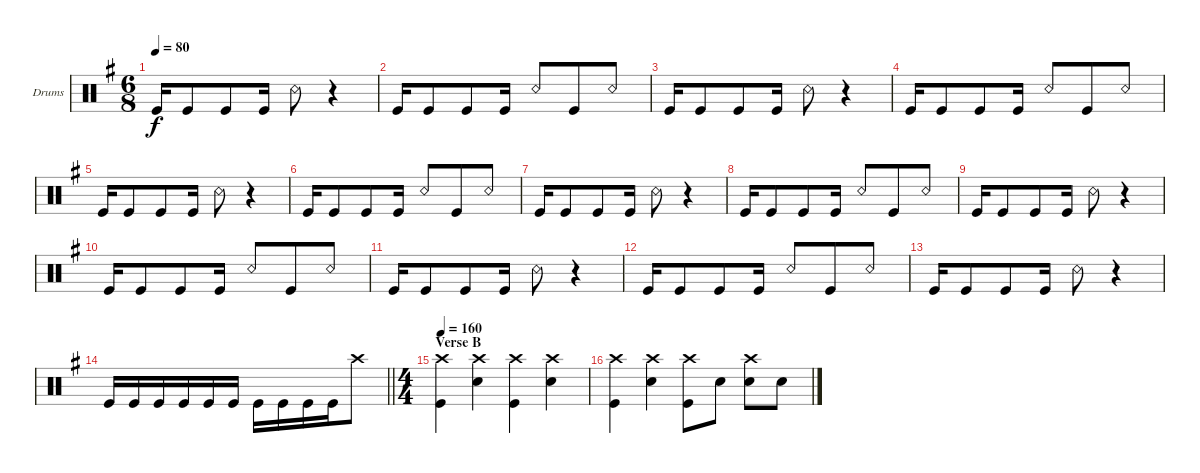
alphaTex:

\bracketExtendMode groupsimilarinstruments
\firstSystemTrackNameOrientation horizontal
\otherSystemsTrackNameOrientation horizontal
\track ("Drumkit" "Drums") {instrument percussion}
\staff {score}
\articulation defaults
\ts (6 8)
\tempo 80
\clef neutral
\ks eminor "Kick (hit)".16{dy f} "Kick (hit)".8 "Kick (hit)".8 "Kick (hit)".16 "Snare (rim shot)".8
r.4 |
"Kick (hit)".16 "Kick (hit)".8 "Kick (hit)".8 "Kick (hit)".16 "Snare (rim shot)".8 "Kick (hit)".8 "Snare (rim shot)".8 |
"Kick (hit)".16 "Kick (hit)".8 "Kick (hit)".8 "Kick (hit)".16 "Snare (rim shot)".8 r.4 |
"Kick (hit)".16 "Kick (hit)".8 "Kick (hit)".8 "Kick (hit)".16 "Snare (rim shot)".8 "Kick (hit)".8 "Snare (rim shot)".8 |
"Kick (hit)".16 "Kick (hit)".8 "Kick (hit)".8 "Kick (hit)".16 "Snare (rim shot)".8 r.4 |
"Kick (hit)".16 "Kick (hit)".8 "Kick (hit)".8 "Kick (hit)".16 "Snare (rim shot)".8 "Kick (hit)".8 "Snare (rim shot)".8 |
"Kick (hit)".16 "Kick (hit)".8 "Kick (hit)".8 "Kick (hit)".16 "Snare (rim shot)".8 r.4 |
"Kick (hit)".16 "Kick (hit)".8 "Kick (hit)".8 "Kick (hit)".16 "Snare (rim shot)".8 "Kick (hit)".8 "Snare (rim shot)".8 |
"Kick (hit)".16 "Kick (hit)".8 "Kick (hit)".8 "Kick (hit)".16 "Snare (rim shot)".8 r.4 |
"Kick (hit)".16 "Kick (hit)".8 "Kick (hit)".8 "Kick (hit)".16 "Snare (rim shot)".8 "Kick (hit)".8 "Snare (rim shot)".8 |
"Kick (hit)".16 "Kick (hit)".8 "Kick (hit)".8 "Kick (hit)".16 "Snare (rim shot)".8 r.4 |
"Kick (hit)".16 "Kick (hit)".8 "Kick (hit)".8 "Kick (hit)".16 "Snare (rim shot)".8 "Kick (hit)".8 "Snare (rim shot)".8 |
"Kick (hit)".16 "Kick (hit)".8 "Kick (hit)".8 "Kick (hit)".16 "Snare (rim shot)".8 r.4 |
\barLineRight lightlight "Kick (hit)".16 "Kick (hit)".16 "Kick (hit)".16 "Kick (hit)".16 "Kick (hit)".16 "Kick (hit)".16 "Kick (hit)".16 "Kick (hit)".16 "Kick (hit)".16 "Kick (hit)".16 "Crash high (hit)".8
|
\ts (4 4)
\beaming (8 2 2 2 2)
\section ("" "Verse B")
\tempo 160
("Crash high (hit)" "Kick (hit)").4 ("Crash high (hit)" "Snare (hit) 2").4 ("Crash high (hit)" "Kick (hit)").4 ("Crash high (hit)" "Snare (hit) 2").4 |
("Crash high (hit)" "Kick (hit)").4 ("Crash high (hit)" "Snare (hit) 2").4 ("Crash high (hit)" "Kick (hit)").8 "Snare (hit) 2".8 ("Crash high (hit)" "Snare (hit) 2").8 "Snare (hit) 2".8
